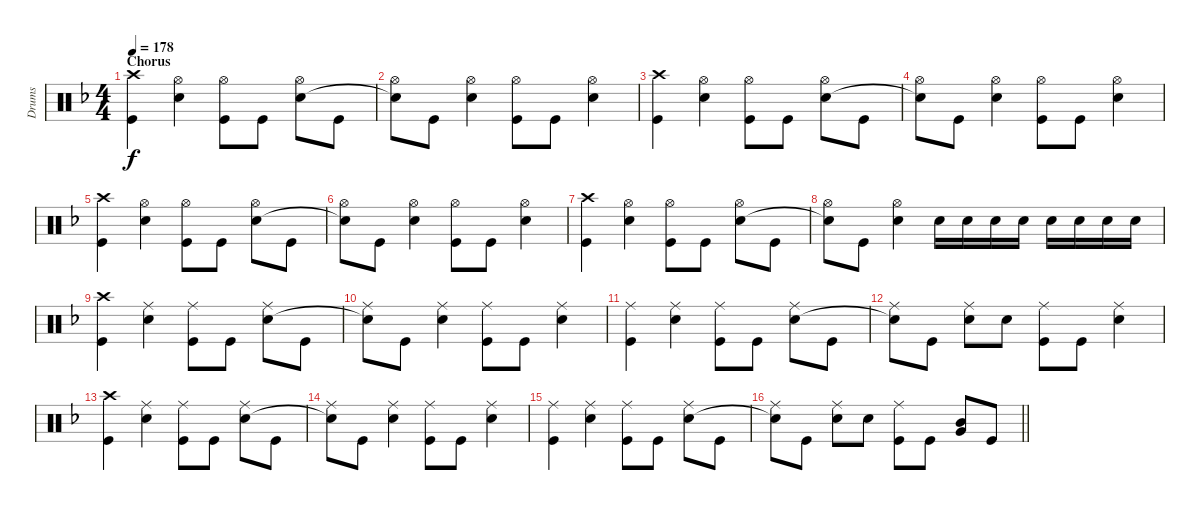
\track ("Drums" "Drums") {instrument percussion}
\staff {score}
\articulation defaults
\ts (4 4)
\section ("" "Chorus")
\tempo 178
\clef neutral
\ks f
("Crash high (hit)" "Kick (hit)").4{dy f} ("Hi-Hat (open)" "Electric Snare (hit)").4 ("Hi-Hat (open)" "Kick (hit)").8 "Kick (hit)".8 ("Hi-Hat (open)" "Electric Snare (hit)").8 "Kick (hit)".8 |
("Hi-Hat (open)" "Snare (hit)"{t}).8 "Kick (hit)".8 ("Hi-Hat (open)" "Electric Snare (hit)").4 ("Hi-Hat (open)" "Kick (hit)").8 "Kick (hit)".8 ("Hi-Hat (open)" "Electric Snare (hit)").4 |
("Crash high (hit)" "Kick (hit)").4 ("Hi-Hat (open)" "Electric Snare (hit)").4 ("Hi-Hat (open)" "Kick (hit)").8 "Kick (hit)".8 ("Hi-Hat (open)" "Electric Snare (hit)").8 "Kick (hit)".8 |
("Hi-Hat (open)" "Snare (hit)"{t}).8 "Kick (hit)".8 ("Hi-Hat (open)" "Electric Snare (hit)").4 ("Hi-Hat (open)" "Kick (hit)").8 "Kick (hit)".8 ("Hi-Hat (open)" "Electric Snare (hit)").4 |
("Crash high (hit)" "Kick (hit)").4 ("Hi-Hat (open)" "Electric Snare (hit)").4 ("Hi-Hat (open)" "Kick (hit)").8 "Kick (hit)".8 ("Hi-Hat (open)" "Electric Snare (hit)").8 "Kick (hit)".8 |
("Hi-Hat (open)" "Snare (hit)"{t}).8 "Kick (hit)".8 ("Hi-Hat (open)" "Electric Snare (hit)").4 ("Hi-Hat (open)" "Kick (hit)").8 "Kick (hit)".8 ("Hi-Hat (open)" "Electric Snare (hit)").4 |
("Crash high (hit)" "Kick (hit)").4 ("Hi-Hat (open)" "Electric Snare (hit)").4 ("Hi-Hat (open)" "Kick (hit)").8 "Kick (hit)".8 ("Hi-Hat (open)" "Electric Snare (hit)").8 "Kick (hit)".8 |
("Hi-Hat (open)" "Snare (hit)"{t}).8 "Kick (hit)".8 ("Hi-Hat (open)" "Electric Snare (hit)").4 "Electric Snare (hit)".16 "Electric Snare (hit)".16 "Electric Snare (hit)".16 "Electric Snare (hit)".16 "Electric Snare (hit)".16 "Electric Snare (hit)".16 "Electric Snare (hit)".16 "Electric Snare (hit)".16 |
("Crash high (hit)" "Kick (hit)").4 ("Ride (middle)" "Electric Snare (hit)").4 ("Ride (middle)" "Kick (hit)").8 "Kick (hit)".8 ("Ride (middle)" "Electric Snare (hit)").8 "Kick (hit)".8 |
("Ride (middle)" "Snare (hit)"{t}).8 "Kick (hit)".8 ("Ride (middle)" "Electric Snare (hit)").4 ("Ride (middle)" "Kick (hit)").8 "Kick (hit)".8 ("Ride (middle)" "Electric Snare (hit)").4 |
("Ride (middle)" "Kick (hit)").4 ("Ride (middle)" "Electric Snare (hit)").4 ("Ride (middle)" "Kick (hit)").8 "Kick (hit)".8 ("Ride (middle)" "Electric Snare (hit)").8 "Kick (hit)".8 |
("Ride (middle)" "Snare (hit)"{t}).8 "Kick (hit)".8 ("Ride (middle)" "Electric Snare (hit)").8 "Electric Snare (hit)".8 ("Ride (middle)" "Kick (hit)").8 "Kick (hit)".8 ("Ride (middle)" "Electric Snare (hit)").4 |
("Crash high (hit)" "Kick (hit)").4 ("Ride (middle)" "Electric Snare (hit)").4 ("Ride (middle)" "Kick (hit)").8 "Kick (hit)".8 ("Ride (middle)" "Electric Snare (hit)").8 "Kick (hit)".8 |
("Ride (middle)" "Snare (hit)"{t}).8 "Kick (hit)".8 ("Ride (middle)" "Electric Snare (hit)").4 ("Ride (middle)" "Kick (hit)").8 "Kick (hit)".8 ("Ride (middle)" "Electric Snare (hit)").4 |
("Ride (middle)" "Kick (hit)").4 ("Ride (middle)" "Electric Snare (hit)").4 ("Ride (middle)" "Kick (hit)").8 "Kick (hit)".8 ("Ride (middle)" "Electric Snare (hit)").8 "Kick (hit)".8 |
\barLineRight lightlight
("Ride (middle)" "Snare (hit)"{t}).8 "Kick (hit)".8 ("Ride (middle)" "Electric Snare (hit)").8 "Electric Snare (hit)".8 ("Ride (middle)" "Kick (hit)").8 "Kick (hit)".8 ("Mid Tom (hit)" "Very Low Tom (hit)").8 "Kick (hit)".8
